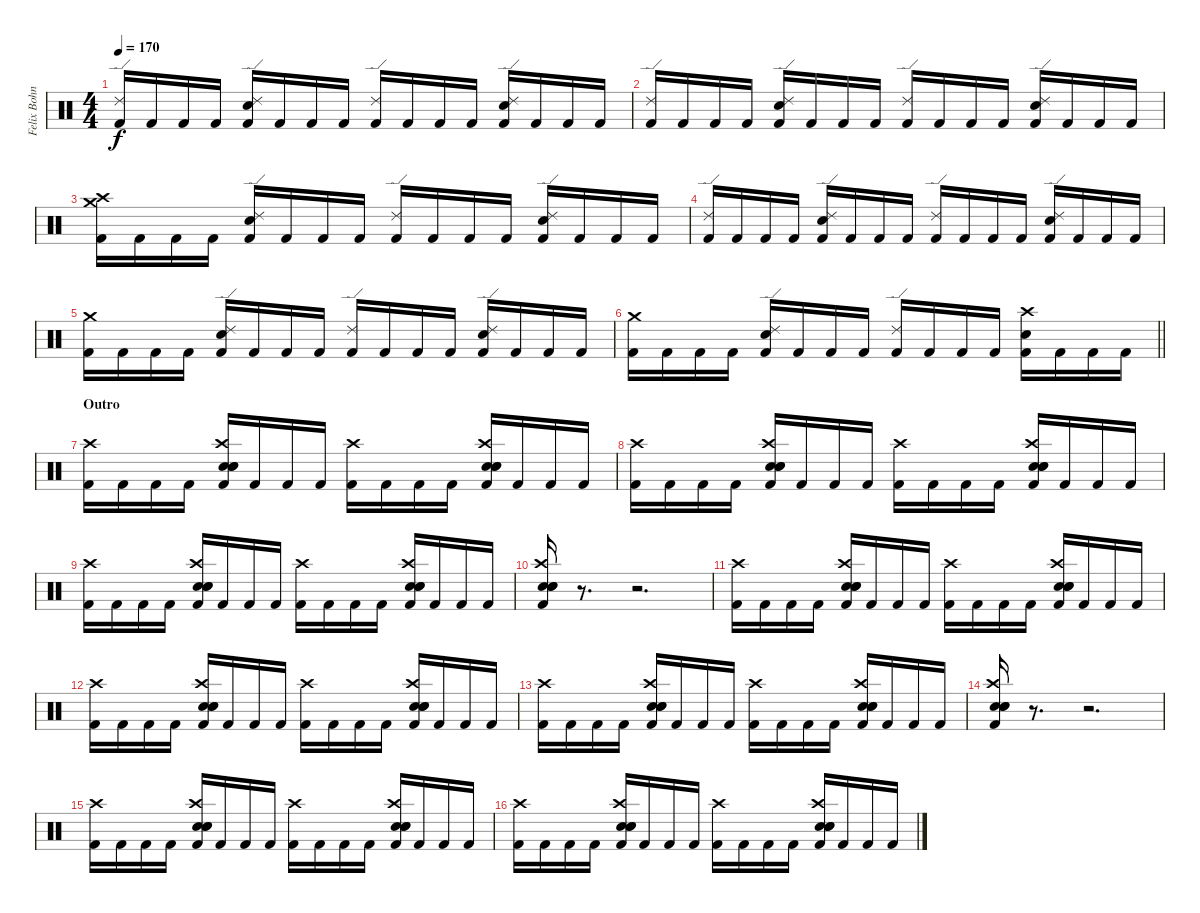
\track ("Felix Bohnke - Drums" "Felix Bohn") {instrument percussion}
\staff {score}
\articulation defaults
\ts (4 4)
\tempo 170
\clef neutral
\ks c
("Ride (edge) 2" "Kick (hit) 2").16{dy f} "Kick (hit) 2".16 "Kick (hit) 2".16 "Kick (hit) 2".16 ("Ride (edge) 2" "Snare (hit) 2" "Kick (hit) 2").16 "Kick (hit) 2".16 "Kick (hit) 2".16 "Kick (hit) 2".16 ("Ride (edge) 2" "Kick (hit) 2").16 "Kick (hit) 2".16 "Kick (hit) 2".16 "Kick (hit) 2".16 ("Ride (edge) 2" "Snare (hit) 2" "Kick (hit) 2").16 "Kick (hit) 2".16 "Kick (hit) 2".16 "Kick (hit) 2".16 |
("Ride (edge) 2" "Kick (hit) 2").16 "Kick (hit) 2".16 "Kick (hit) 2".16 "Kick (hit) 2".16 ("Ride (edge) 2" "Snare (hit) 2" "Kick (hit) 2").16 "Kick (hit) 2".16 "Kick (hit) 2".16 "Kick (hit) 2".16 ("Ride (edge) 2" "Kick (hit) 2").16 "Kick (hit) 2".16 "Kick (hit) 2".16 "Kick (hit) 2".16 ("Ride (edge) 2" "Snare (hit) 2" "Kick (hit) 2").16 "Kick (hit) 2".16 "Kick (hit) 2".16 "Kick (hit) 2".16 |
("Crash high (hit)" "Crash medium (hit)" "Kick (hit) 2").16 "Kick (hit) 2".16 "Kick (hit) 2".16 "Kick (hit) 2".16 ("Ride (edge) 2" "Snare (hit) 2" "Kick (hit) 2").16 "Kick (hit) 2".16 "Kick (hit) 2".16 "Kick (hit) 2".16 ("Ride (edge) 2" "Kick (hit) 2").16 "Kick (hit) 2".16 "Kick (hit) 2".16 "Kick (hit) 2".16 ("Ride (edge) 2" "Snare (hit) 2" "Kick (hit) 2").16 "Kick (hit) 2".16 "Kick (hit) 2".16 "Kick (hit) 2".16 |
("Ride (edge) 2" "Kick (hit) 2").16 "Kick (hit) 2".16 "Kick (hit) 2".16 "Kick (hit) 2".16 ("Ride (edge) 2" "Snare (hit) 2" "Kick (hit) 2").16 "Kick (hit) 2".16 "Kick (hit) 2".16 "Kick (hit) 2".16 ("Ride (edge) 2" "Kick (hit) 2").16 "Kick (hit) 2".16 "Kick (hit) 2".16 "Kick (hit) 2".16 ("Ride (edge) 2" "Snare (hit) 2" "Kick (hit) 2").16 "Kick (hit) 2".16 "Kick (hit) 2".16 "Kick (hit) 2".16 |
("Crash medium (hit)" "Kick (hit) 2").16 "Kick (hit) 2".16 "Kick (hit) 2".16 "Kick (hit) 2".16 ("Ride (edge) 2" "Snare (hit) 2" "Kick (hit) 2").16 "Kick (hit) 2".16 "Kick (hit) 2".16 "Kick (hit) 2".16 ("Ride (edge) 2" "Kick (hit) 2").16 "Kick (hit) 2".16 "Kick (hit) 2".16 "Kick (hit) 2".16 ("Ride (edge) 2" "Snare (hit) 2" "Kick (hit) 2").16 "Kick (hit) 2".16 "Kick (hit) 2".16 "Kick (hit) 2".16 |
\barLineRight lightlight
("Crash medium (hit)" "Kick (hit) 2").16 "Kick (hit) 2".16 "Kick (hit) 2".16 "Kick (hit) 2".16 ("Ride (edge) 2" "Snare (hit) 2" "Kick (hit) 2").16 "Kick (hit) 2".16 "Kick (hit) 2".16 "Kick (hit) 2".16 ("Ride (edge) 2" "Kick (hit) 2").16 "Kick (hit) 2".16 "Kick (hit) 2".16 "Kick (hit) 2".16 ("Crash high (hit)" "Snare (hit) 2" "Kick (hit) 2").16 "Kick (hit) 2".16 "Kick (hit) 2".16 "Kick (hit) 2".16 |
\section ("" "Outro")
("Crash high (hit)" "Kick (hit) 2").16 "Kick (hit) 2".16 "Kick (hit) 2".16 "Kick (hit) 2".16 ("Crash high (hit)" "Electric Snare (hit)" "Electric Snare (hit)" "Electric Snare (hit)" "Kick (hit) 2").16 "Kick (hit) 2".16 "Kick (hit) 2".16 "Kick (hit) 2".16 ("Crash high (hit)" "Kick (hit) 2").16 "Kick (hit) 2".16 "Kick (hit) 2".16 "Kick (hit) 2".16 ("Crash high (hit)" "Electric Snare (hit)" "Electric Snare (hit)" "Electric Snare (hit)" "Kick (hit) 2").16 "Kick (hit) 2".16 "Kick (hit) 2".16 "Kick (hit) 2".16 |
("Crash high (hit)" "Kick (hit) 2").16 "Kick (hit) 2".16 "Kick (hit) 2".16 "Kick (hit) 2".16 ("Crash high (hit)" "Electric Snare (hit)" "Electric Snare (hit)" "Electric Snare (hit)" "Kick (hit) 2").16 "Kick (hit) 2".16 "Kick (hit) 2".16 "Kick (hit) 2".16 ("Crash high (hit)" "Kick (hit) 2").16 "Kick (hit) 2".16 "Kick (hit) 2".16 "Kick (hit) 2".16 ("Crash high (hit)" "Electric Snare (hit)" "Electric Snare (hit)" "Electric Snare (hit)" "Kick (hit) 2").16 "Kick (hit) 2".16 "Kick (hit) 2".16 "Kick (hit) 2".16 |
("Crash high (hit)" "Kick (hit) 2").16 "Kick (hit) 2".16 "Kick (hit) 2".16 "Kick (hit) 2".16 ("Crash high (hit)" "Electric Snare (hit)" "Electric Snare (hit)" "Electric Snare (hit)" "Kick (hit) 2").16 "Kick (hit) 2".16 "Kick (hit) 2".16 "Kick (hit) 2".16 ("Crash high (hit)" "Kick (hit) 2").16 "Kick (hit) 2".16 "Kick (hit) 2".16 "Kick (hit) 2".16 ("Crash high (hit)" "Electric Snare (hit)" "Electric Snare (hit)" "Electric Snare (hit)" "Kick (hit) 2").16 "Kick (hit) 2".16 "Kick (hit) 2".16 "Kick (hit) 2".16 |
("Crash high (hit)" "Electric Snare (hit)" "Electric Snare (hit)" "Electric Snare (hit)" "Kick (hit) 2").16 r.8{d} r.2{d} |
("Crash high (hit)" "Kick (hit) 2").16 "Kick (hit) 2".16 "Kick (hit) 2".16 "Kick (hit) 2".16 ("Crash high (hit)" "Electric Snare (hit)" "Electric Snare (hit)" "Electric Snare (hit)" "Kick (hit) 2").16 "Kick (hit) 2".16 "Kick (hit) 2".16 "Kick (hit) 2".16 ("Crash high (hit)" "Kick (hit) 2").16 "Kick (hit) 2".16 "Kick (hit) 2".16 "Kick (hit) 2".16 ("Crash high (hit)" "Electric Snare (hit)" "Electric Snare (hit)" "Electric Snare (hit)" "Kick (hit) 2").16 "Kick (hit) 2".16 "Kick (hit) 2".16 "Kick (hit) 2".16 |
("Crash high (hit)" "Kick (hit) 2").16 "Kick (hit) 2".16 "Kick (hit) 2".16 "Kick (hit) 2".16 ("Crash high (hit)" "Electric Snare (hit)" "Electric Snare (hit)" "Electric Snare (hit)" "Kick (hit) 2").16 "Kick (hit) 2".16 "Kick (hit) 2".16 "Kick (hit) 2".16 ("Crash high (hit)" "Kick (hit) 2").16 "Kick (hit) 2".16 "Kick (hit) 2".16 "Kick (hit) 2".16 ("Crash high (hit)" "Electric Snare (hit)" "Electric Snare (hit)" "Electric Snare (hit)" "Kick (hit) 2").16 "Kick (hit) 2".16 "Kick (hit) 2".16 "Kick (hit) 2".16 |
("Crash high (hit)" "Kick (hit) 2").16 "Kick (hit) 2".16 "Kick (hit) 2".16 "Kick (hit) 2".16 ("Crash high (hit)" "Electric Snare (hit)" "Electric Snare (hit)" "Electric Snare (hit)" "Kick (hit) 2").16 "Kick (hit) 2".16 "Kick (hit) 2".16 "Kick (hit) 2".16 ("Crash high (hit)" "Kick (hit) 2").16 "Kick (hit) 2".16 "Kick (hit) 2".16 "Kick (hit) 2".16 ("Crash high (hit)" "Electric Snare (hit)" "Electric Snare (hit)" "Electric Snare (hit)" "Kick (hit) 2").16 "Kick (hit) 2".16 "Kick (hit) 2".16 "Kick (hit) 2".16 |
("Crash high (hit)" "Electric Snare (hit)" "Electric Snare (hit)" "Electric Snare (hit)" "Kick (hit) 2").16 r.8{d} r.2{d} |
("Crash high (hit)" "Kick (hit) 2").16 "Kick (hit) 2".16 "Kick (hit) 2".16 "Kick (hit) 2".16 ("Crash high (hit)" "Electric Snare (hit)" "Electric Snare (hit)" "Electric Snare (hit)" "Kick (hit) 2").16 "Kick (hit) 2".16 "Kick (hit) 2".16 "Kick (hit) 2".16 ("Crash high (hit)" "Kick (hit) 2").16 "Kick (hit) 2".16 "Kick (hit) 2".16 "Kick (hit) 2".16 ("Crash high (hit)" "Electric Snare (hit)" "Electric Snare (hit)" "Electric Snare (hit)" "Kick (hit) 2").16 "Kick (hit) 2".16 "Kick (hit) 2".16 "Kick (hit) 2".16 |
("Crash high (hit)" "Kick (hit) 2").16 "Kick (hit) 2".16 "Kick (hit) 2".16 "Kick (hit) 2".16 ("Crash high (hit)" "Electric Snare (hit)" "Electric Snare (hit)" "Electric Snare (hit)" "Kick (hit) 2").16 "Kick (hit) 2".16 "Kick (hit) 2".16 "Kick (hit) 2".16 ("Crash high (hit)" "Kick (hit) 2").16 "Kick (hit) 2".16 "Kick (hit) 2".16 "Kick (hit) 2".16 ("Crash high (hit)" "Electric Snare (hit)" "Electric Snare (hit)" "Electric Snare (hit)" "Kick (hit) 2").16 "Kick (hit) 2".16 "Kick (hit) 2".16 "Kick (hit) 2".16
